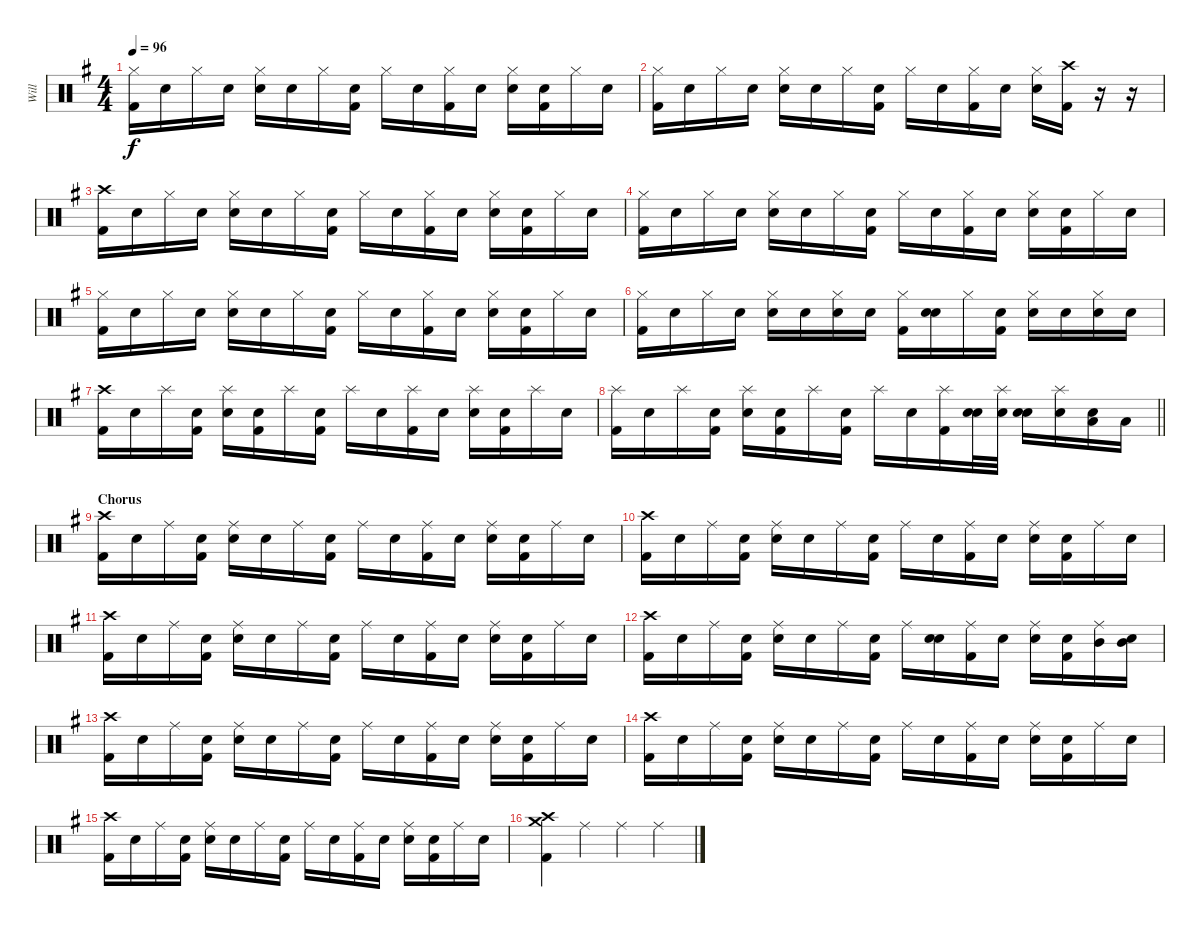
\track ("Will" "Will") {instrument percussion}
\staff {score}
\articulation defaults
\ts (4 4)
\tempo 96
\clef neutral
\ks g
("Hi-Hat (closed)" "Kick (hit) 2").16{dy f} "Snare (hit)".16 "Hi-Hat (closed)".16 "Snare (hit)".16 ("Hi-Hat (closed)" "Snare (hit) 2").16 "Snare (hit)".16 "Hi-Hat (closed)".16 ("Snare (hit)" "Kick (hit) 2").16 "Hi-Hat (closed)".16 "Snare (hit)".16 ("Hi-Hat (closed)" "Kick (hit) 2").16 "Snare (hit)".16 ("Hi-Hat (closed)" "Snare (hit) 2").16 ("Snare (hit)" "Kick (hit) 2").16 "Hi-Hat (closed)".16 "Snare (hit)".16 |
("Hi-Hat (closed)" "Kick (hit) 2").16 "Snare (hit)".16 "Hi-Hat (closed)".16 "Snare (hit)".16 ("Hi-Hat (closed)" "Snare (hit) 2").16 "Snare (hit)".16 "Hi-Hat (closed)".16 ("Snare (hit)" "Kick (hit) 2").16 "Hi-Hat (closed)".16 "Snare (hit)".16 ("Hi-Hat (closed)" "Kick (hit) 2").16 "Snare (hit)".16 ("Hi-Hat (closed)" "Snare (hit) 2").16 ("Crash high (hit)" "Kick (hit) 2").16 r.16 r.16 |
("Crash high (hit)" "Kick (hit) 2").16 "Snare (hit)".16 "Hi-Hat (closed)".16 "Snare (hit)".16 ("Hi-Hat (closed)" "Snare (hit) 2").16 "Snare (hit)".16 "Hi-Hat (closed)".16 ("Snare (hit)" "Kick (hit) 2").16 "Hi-Hat (closed)".16 "Snare (hit)".16 ("Hi-Hat (closed)" "Kick (hit) 2").16 "Snare (hit)".16 ("Hi-Hat (closed)" "Snare (hit) 2").16 ("Snare (hit)" "Kick (hit) 2").16 "Hi-Hat (closed)".16 "Snare (hit)".16 |
("Hi-Hat (closed)" "Kick (hit) 2").16 "Snare (hit)".16 "Hi-Hat (closed)".16 "Snare (hit)".16 ("Hi-Hat (closed)" "Snare (hit) 2").16 "Snare (hit)".16 "Hi-Hat (closed)".16 ("Snare (hit)" "Kick (hit) 2").16 "Hi-Hat (closed)".16 "Snare (hit)".16 ("Hi-Hat (closed)" "Kick (hit) 2").16 "Snare (hit)".16 ("Hi-Hat (closed)" "Snare (hit) 2").16 ("Snare (hit)" "Kick (hit) 2").16 "Hi-Hat (closed)".16 "Snare (hit)".16 |
("Hi-Hat (closed)" "Kick (hit) 2").16 "Snare (hit)".16 "Hi-Hat (closed)".16 "Snare (hit)".16 ("Hi-Hat (closed)" "Snare (hit) 2").16 "Snare (hit)".16 "Hi-Hat (closed)".16 ("Snare (hit)" "Kick (hit) 2").16 "Hi-Hat (closed)".16 "Snare (hit)".16 ("Hi-Hat (closed)" "Kick (hit) 2").16 "Snare (hit)".16 ("Hi-Hat (closed)" "Snare (hit) 2").16 ("Snare (hit)" "Kick (hit) 2").16 "Hi-Hat (closed)".16 "Snare (hit)".16 |
("Hi-Hat (closed)" "Kick (hit) 2").16 "Snare (hit)".16 "Hi-Hat (closed)".16 "Snare (hit)".16 ("Hi-Hat (closed)" "Snare (hit) 2").16 "Snare (hit)".16 ("Hi-Hat (closed)" "Snare (hit) 2").16 "Snare (hit)".16 ("Hi-Hat (closed)" "Kick (hit) 2").16 ("Snare (hit)" "Snare (hit) 2").16 "Hi-Hat (closed)".16 ("Snare (hit)" "Kick (hit) 2").16 ("Hi-Hat (closed)" "Snare (hit) 2").16 "Snare (hit)".16 ("Hi-Hat (closed)" "Snare (hit) 2").16 "Snare (hit)".16 |
("Crash high (hit)" "Kick (hit) 2").16 "Snare (hit)".16 "Splash (hit)".16 ("Snare (hit)" "Kick (hit) 2").16 ("Splash (hit)" "Snare (hit) 2").16 ("Snare (hit)" "Kick (hit) 2").16 "Splash (hit)".16 ("Snare (hit)" "Kick (hit) 2").16 "Splash (hit)".16 "Snare (hit)".16 ("Splash (hit)" "Kick (hit) 2").16 "Snare (hit)".16 ("Splash (hit)" "Snare (hit) 2").16 ("Snare (hit)" "Kick (hit) 2").16 "Splash (hit)".16 "Snare (hit)".16 |
\barLineRight lightlight
("Splash (hit)" "Kick (hit) 2").16 "Snare (hit)".16 "Splash (hit)".16 ("Snare (hit)" "Kick (hit) 2").16 ("Splash (hit)" "Snare (hit) 2").16 ("Snare (hit)" "Kick (hit) 2").16 "Splash (hit)".16 ("Snare (hit)" "Kick (hit) 2").16 "Splash (hit)".16 "Snare (hit)".16 ("Splash (hit)" "Kick (hit) 2").16 ("Snare (hit)" "Snare (hit) 2").32 ("Splash (hit)" "Snare (hit) 2").32 ("Snare (hit)" "Snare (hit) 2").16 ("Splash (hit)" "Snare (hit) 2").16 ("Snare (hit)" "Low Tom (hit)").16 "Low Tom (hit)".16 |
\section ("" "Chorus")
("Crash high (hit)" "Kick (hit) 2").16 "Snare (hit)".16 "Ride (middle)".16 ("Snare (hit)" "Kick (hit) 2").16 ("Ride (middle)" "Snare (hit) 2").16 "Snare (hit)".16 "Ride (middle)".16 ("Snare (hit)" "Kick (hit) 2").16 "Ride (middle)".16 "Snare (hit)".16 ("Ride (middle)" "Kick (hit) 2").16 "Snare (hit)".16 ("Ride (middle)" "Snare (hit) 2").16 ("Snare (hit)" "Kick (hit) 2").16 "Ride (middle)".16 "Snare (hit)".16 |
("Crash high (hit)" "Kick (hit) 2").16 "Snare (hit)".16 "Ride (middle)".16 ("Snare (hit)" "Kick (hit) 2").16 ("Ride (middle)" "Snare (hit) 2").16 "Snare (hit)".16 "Ride (middle)".16 ("Snare (hit)" "Kick (hit) 2").16 "Ride (middle)".16 "Snare (hit)".16 ("Ride (middle)" "Kick (hit) 2").16 "Snare (hit)".16 ("Ride (middle)" "Snare (hit) 2").16 ("Snare (hit)" "Kick (hit) 2").16 "Ride (middle)".16 "Snare (hit)".16 |
("Crash high (hit)" "Kick (hit) 2").16 "Snare (hit)".16 "Ride (middle)".16 ("Snare (hit)" "Kick (hit) 2").16 ("Ride (middle)" "Snare (hit) 2").16 "Snare (hit)".16 "Ride (middle)".16 ("Snare (hit)" "Kick (hit) 2").16 "Ride (middle)".16 "Snare (hit)".16 ("Ride (middle)" "Kick (hit) 2").16 "Snare (hit)".16 ("Ride (middle)" "Snare (hit) 2").16 ("Snare (hit)" "Kick (hit) 2").16 "Ride (middle)".16 "Snare (hit)".16 |
("Crash high (hit)" "Kick (hit) 2").16 "Snare (hit)".16 "Ride (middle)".16 ("Snare (hit)" "Kick (hit) 2").16 ("Ride (middle)" "Snare (hit) 2").16 "Snare (hit)".16 "Ride (middle)".16 ("Snare (hit)" "Kick (hit) 2").16 "Ride (middle)".16 ("Snare (hit)" "Snare (hit) 2").16 ("Ride (middle)" "Kick (hit) 2").16 "Snare (hit)".16 ("Ride (middle)" "Snare (hit) 2").16 ("Snare (hit)" "Kick (hit) 2").16 ("Ride (middle)" "Mid Tom (hit)").16 ("Snare (hit)" "Mid Tom (hit)").16 |
("Crash high (hit)" "Kick (hit) 2").16 "Snare (hit)".16 "Ride (middle)".16 ("Snare (hit)" "Kick (hit) 2").16 ("Ride (middle)" "Snare (hit) 2").16 "Snare (hit)".16 "Ride (middle)".16 ("Snare (hit)" "Kick (hit) 2").16 "Ride (middle)".16 "Snare (hit)".16 ("Ride (middle)" "Kick (hit) 2").16 "Snare (hit)".16 ("Ride (middle)" "Snare (hit) 2").16 ("Snare (hit)" "Kick (hit) 2").16 "Ride (middle)".16 "Snare (hit)".16 |
("Crash high (hit)" "Kick (hit) 2").16 "Snare (hit)".16 "Ride (middle)".16 ("Snare (hit)" "Kick (hit) 2").16 ("Ride (middle)" "Snare (hit) 2").16 "Snare (hit)".16 "Ride (middle)".16 ("Snare (hit)" "Kick (hit) 2").16 "Ride (middle)".16 "Snare (hit)".16 ("Ride (middle)" "Kick (hit) 2").16 "Snare (hit)".16 ("Ride (middle)" "Snare (hit) 2").16 ("Snare (hit)" "Kick (hit) 2").16 "Ride (middle)".16 "Snare (hit)".16 |
("Crash high (hit)" "Kick (hit) 2").16 "Snare (hit)".16 "Ride (middle)".16 ("Snare (hit)" "Kick (hit) 2").16 ("Ride (middle)" "Snare (hit) 2").16 "Snare (hit)".16 "Ride (middle)".16 ("Snare (hit)" "Kick (hit) 2").16 "Ride (middle)".16 "Snare (hit)".16 ("Ride (middle)" "Kick (hit) 2").16 "Snare (hit)".16 ("Ride (middle)" "Snare (hit) 2").16 ("Snare (hit)" "Kick (hit) 2").16 "Ride (middle)".16 "Snare (hit)".16 |
("Crash high (hit)" "Crash medium (hit)" "Kick (hit) 2").4 "Ride (middle)".4 "Ride (middle)".4 "Ride (middle)".4
